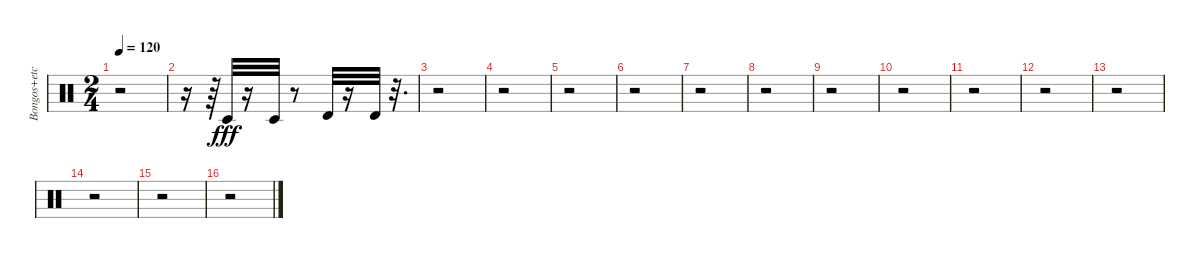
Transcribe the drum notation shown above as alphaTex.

\track ("Bongos+etc" "Bongos+etc") {instrument percussion}
\staff {score}
\articulation defaults
\ts (2 4)
\tempo 120
\clef neutral
\ks c
r.2{dy fff} |
r.16 r.64 "Timbale low (hit)".32 r.16 "Timbale low (hit)".32 r.8 "Timbale high (hit)".32 r.16 "Timbale high (hit)".32 r.32{d} |
r.2 |
r.2 |
r.2 |
r.2 |
r.2 |
r.2 |
r.2 |
r.2 |
r.2 |
r.2 |
r.2 |
r.2 |
r.2 |
r.2
